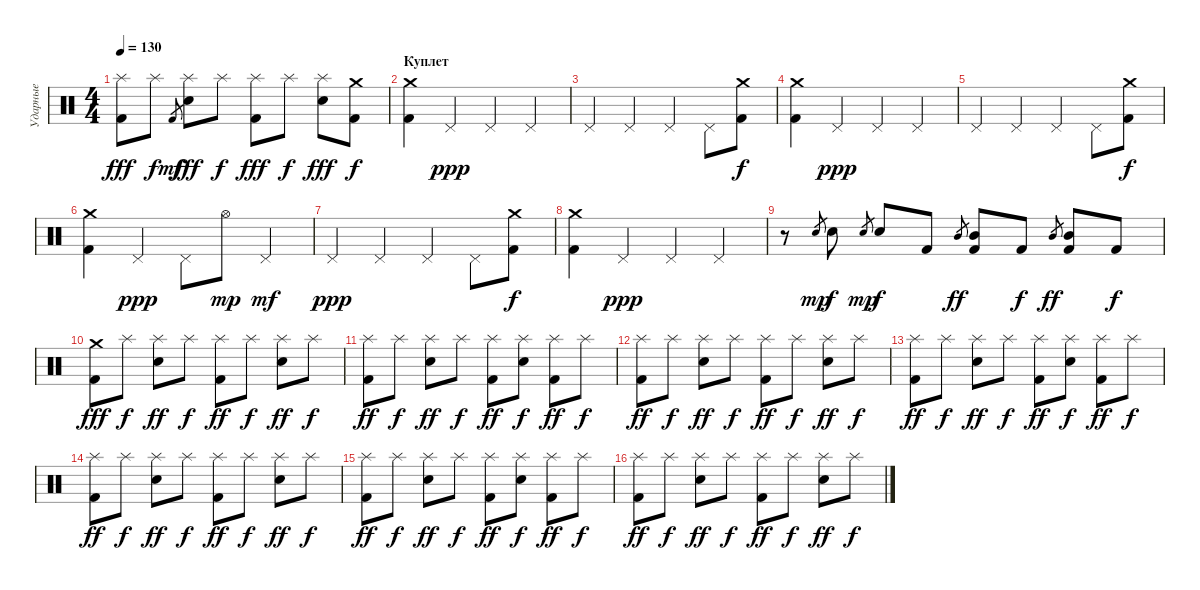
\track ("Ударные" "Ударные") {instrument percussion}
\staff {score}
\articulation defaults
\ts (4 4)
\tempo 130
\clef neutral
\ks c
("Kick (hit) 2" "Splash (hit)").8{dy fff} "Splash (hit)".8{dy f} "Kick (hit) 2".8{gr dy mf} ("Electric Snare (hit)" "Splash (hit)").8{dy fff} "Splash (hit)".8{dy f} ("Kick (hit) 2" "Splash (hit)").8{dy fff} "Splash (hit)".8{dy f} ("Electric Snare (hit)" "Splash (hit)").8{dy fff} ("Kick (hit) 2" "Crash medium (hit)").8{dy f} |
\section ("" "Куплет")
("Kick (hit) 2" "Crash medium (hit)").4 "Pedal Hi-Hat (hit)".4{dy ppp} "Pedal Hi-Hat (hit)".4 "Pedal Hi-Hat (hit)".4 |
"Pedal Hi-Hat (hit)".4 "Pedal Hi-Hat (hit)".4 "Pedal Hi-Hat (hit)".4 "Pedal Hi-Hat (hit)".8 ("Kick (hit) 2" "Crash medium (hit)").8{dy f} |
("Kick (hit) 2" "Crash medium (hit)").4 "Pedal Hi-Hat (hit)".4{dy ppp} "Pedal Hi-Hat (hit)".4 "Pedal Hi-Hat (hit)".4 |
"Pedal Hi-Hat (hit)".4 "Pedal Hi-Hat (hit)".4 "Pedal Hi-Hat (hit)".4 "Pedal Hi-Hat (hit)".8 ("Kick (hit) 2" "Crash medium (hit)").8{dy f} |
("Kick (hit) 2" "Crash medium (hit)").4 "Pedal Hi-Hat (hit)".4{dy ppp} "Pedal Hi-Hat (hit)".8 "Hi-Hat (open)".8{dy mp} "Pedal Hi-Hat (hit)".4{dy mf} |
"Pedal Hi-Hat (hit)".4{dy ppp} "Pedal Hi-Hat (hit)".4 "Pedal Hi-Hat (hit)".4 "Pedal Hi-Hat (hit)".8 ("Kick (hit) 2" "Crash medium (hit)").8{dy f} |
("Kick (hit) 2" "Crash medium (hit)").4 "Pedal Hi-Hat (hit)".4{dy ppp} "Pedal Hi-Hat (hit)".4 "Pedal Hi-Hat (hit)".4 |
r.8 "Electric Snare (hit)".8{gr dy mp} "Electric Snare (hit)".8{dy f} "Electric Snare (hit)".8{gr dy mp} "Electric Snare (hit)".8{dy f} "Kick (hit) 2".8 "Mid Tom (hit)".8{gr dy ff} ("Kick (hit) 2" "Mid Tom (hit)").8 "Kick (hit) 2".8{dy f} "Mid Tom (hit)".8{gr dy ff} ("Kick (hit) 2" "Mid Tom (hit)").8 "Kick (hit) 2".8{dy f} |
("Kick (hit) 2" "Crash medium (hit)").8{dy fff} "Splash (hit)".8{dy f} ("Electric Snare (hit)" "Splash (hit)").8{dy ff} "Splash (hit)".8{dy f} ("Kick (hit) 2" "Splash (hit)").8{dy ff} "Splash (hit)".8{dy f} ("Electric Snare (hit)" "Splash (hit)").8{dy ff} "Splash (hit)".8{dy f} |
("Kick (hit) 2" "Splash (hit)").8{dy ff} "Splash (hit)".8{dy f} ("Electric Snare (hit)" "Splash (hit)").8{dy ff} "Splash (hit)".8{dy f} ("Kick (hit) 2" "Splash (hit)").8{dy ff} ("Electric Snare (hit)" "Splash (hit)").8{dy f} ("Kick (hit) 2" "Splash (hit)").8{dy ff} "Splash (hit)".8{dy f} |
("Kick (hit) 2" "Splash (hit)").8{dy ff} "Splash (hit)".8{dy f} ("Electric Snare (hit)" "Splash (hit)").8{dy ff} "Splash (hit)".8{dy f} ("Kick (hit) 2" "Splash (hit)").8{dy ff} "Splash (hit)".8{dy f} ("Electric Snare (hit)" "Splash (hit)").8{dy ff} "Splash (hit)".8{dy f} |
("Kick (hit) 2" "Splash (hit)").8{dy ff} "Splash (hit)".8{dy f} ("Electric Snare (hit)" "Splash (hit)").8{dy ff} "Splash (hit)".8{dy f} ("Kick (hit) 2" "Splash (hit)").8{dy ff} ("Electric Snare (hit)" "Splash (hit)").8{dy f} ("Kick (hit) 2" "Splash (hit)").8{dy ff} "Splash (hit)".8{dy f} |
("Kick (hit) 2" "Splash (hit)").8{dy ff} "Splash (hit)".8{dy f} ("Electric Snare (hit)" "Splash (hit)").8{dy ff} "Splash (hit)".8{dy f} ("Kick (hit) 2" "Splash (hit)").8{dy ff} "Splash (hit)".8{dy f} ("Electric Snare (hit)" "Splash (hit)").8{dy ff} "Splash (hit)".8{dy f} |
("Kick (hit) 2" "Splash (hit)").8{dy ff} "Splash (hit)".8{dy f} ("Electric Snare (hit)" "Splash (hit)").8{dy ff} "Splash (hit)".8{dy f} ("Kick (hit) 2" "Splash (hit)").8{dy ff} ("Electric Snare (hit)" "Splash (hit)").8{dy f} ("Kick (hit) 2" "Splash (hit)").8{dy ff} "Splash (hit)".8{dy f} |
("Kick (hit) 2" "Splash (hit)").8{dy ff} "Splash (hit)".8{dy f} ("Electric Snare (hit)" "Splash (hit)").8{dy ff} "Splash (hit)".8{dy f} ("Kick (hit) 2" "Splash (hit)").8{dy ff} "Splash (hit)".8{dy f} ("Electric Snare (hit)" "Splash (hit)").8{dy ff} "Splash (hit)".8{dy f}
